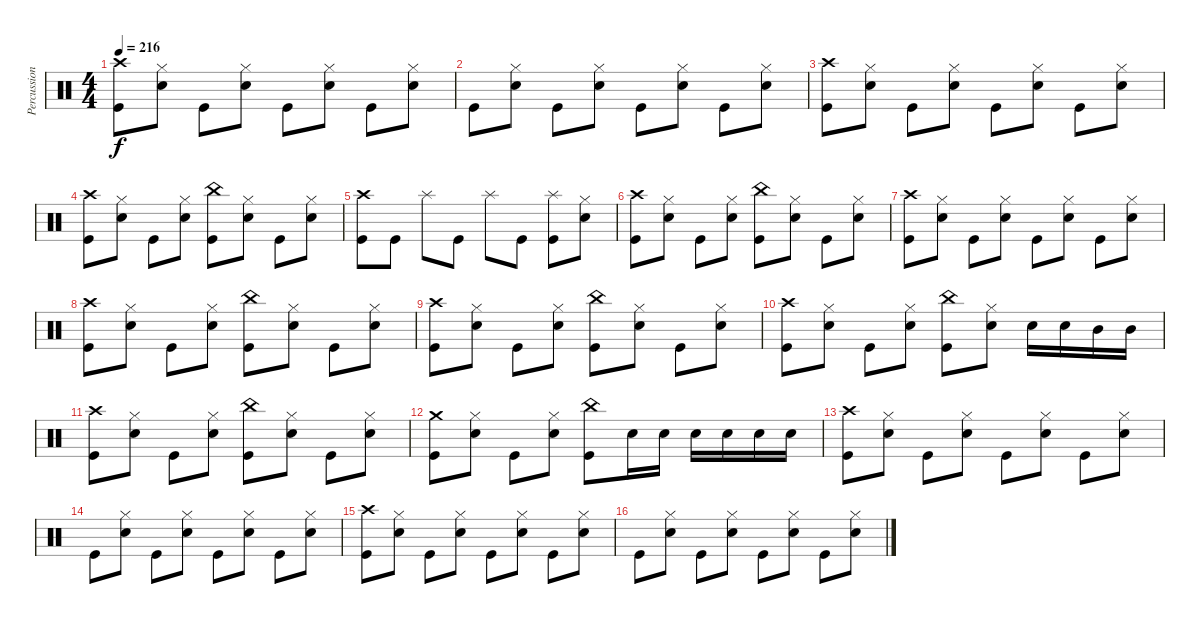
\track ("Percussioni" "Percussion") {instrument percussion}
\staff {score}
\articulation defaults
\ts (4 4)
\tempo 216
\clef neutral
\ks c
("Crash high (hit)" "Kick (hit)").8{dy f} ("Hi-Hat (closed)" "Snare (hit) 2").8 "Kick (hit)".8 ("Hi-Hat (closed)" "Snare (hit) 2").8 "Kick (hit)".8 ("Hi-Hat (closed)" "Snare (hit) 2").8 "Kick (hit)".8 ("Hi-Hat (closed)" "Snare (hit) 2").8 |
"Kick (hit)".8 ("Hi-Hat (closed)" "Snare (hit) 2").8 "Kick (hit)".8 ("Hi-Hat (closed)" "Snare (hit) 2").8 "Kick (hit)".8 ("Hi-Hat (closed)" "Snare (hit) 2").8 "Kick (hit)".8 ("Hi-Hat (closed)" "Snare (hit) 2").8 |
("Crash high (hit)" "Kick (hit)").8 ("Hi-Hat (closed)" "Snare (hit) 2").8 "Kick (hit)".8 ("Hi-Hat (closed)" "Snare (hit) 2").8 "Kick (hit)".8 ("Hi-Hat (closed)" "Snare (hit) 2").8 "Kick (hit)".8 ("Hi-Hat (closed)" "Snare (hit) 2").8 |
("Crash high (hit)" "Kick (hit)").8 ("Hi-Hat (closed)" "Snare (hit) 2").8 "Kick (hit)".8 ("Hi-Hat (closed)" "Snare (hit) 2").8 ("China (hit)" "Kick (hit)").8 ("Hi-Hat (closed)" "Snare (hit) 2").8 "Kick (hit)".8 ("Hi-Hat (closed)" "Snare (hit) 2").8 |
("Crash high (hit)" "Kick (hit)").8 "Kick (hit)".8 "Splash (hit)".8 "Kick (hit)".8 "Splash (hit)".8 "Kick (hit)".8 ("Splash (hit)" "Kick (hit)").8 ("Hi-Hat (closed)" "Snare (hit) 2").8 |
("Crash high (hit)" "Kick (hit)").8 ("Hi-Hat (closed)" "Snare (hit) 2").8 "Kick (hit)".8 ("Hi-Hat (closed)" "Snare (hit) 2").8 ("China (hit)" "Kick (hit)").8 ("Hi-Hat (closed)" "Snare (hit) 2").8 "Kick (hit)".8 ("Hi-Hat (closed)" "Snare (hit) 2").8 |
("Crash high (hit)" "Kick (hit)").8 ("Hi-Hat (closed)" "Snare (hit) 2").8 "Kick (hit)".8 ("Hi-Hat (closed)" "Snare (hit) 2").8 "Kick (hit)".8 ("Hi-Hat (closed)" "Snare (hit) 2").8 "Kick (hit)".8 ("Hi-Hat (closed)" "Snare (hit) 2").8 |
("Crash high (hit)" "Kick (hit)").8 ("Hi-Hat (closed)" "Snare (hit) 2").8 "Kick (hit)".8 ("Hi-Hat (closed)" "Snare (hit) 2").8 ("China (hit)" "Kick (hit)").8 ("Hi-Hat (closed)" "Snare (hit) 2").8 "Kick (hit)".8 ("Hi-Hat (closed)" "Snare (hit) 2").8 |
("Crash high (hit)" "Kick (hit)").8 ("Hi-Hat (closed)" "Snare (hit) 2").8 "Kick (hit)".8 ("Hi-Hat (closed)" "Snare (hit) 2").8 ("China (hit)" "Kick (hit)").8 ("Hi-Hat (closed)" "Snare (hit) 2").8 "Kick (hit)".8 ("Hi-Hat (closed)" "Snare (hit) 2").8 |
("Crash high (hit)" "Kick (hit)").8 ("Hi-Hat (closed)" "Snare (hit) 2").8 "Kick (hit)".8 ("Hi-Hat (closed)" "Snare (hit) 2").8 ("China (hit)" "Kick (hit)").8 ("Hi-Hat (closed)" "Snare (hit) 2").8 "Snare (hit) 2".16 "Snare (hit) 2".16 "Mid Tom (hit)".16 "Mid Tom (hit)".16 |
("Crash high (hit)" "Kick (hit)").8 ("Hi-Hat (closed)" "Snare (hit) 2").8 "Kick (hit)".8 ("Hi-Hat (closed)" "Snare (hit) 2").8 ("China (hit)" "Kick (hit)").8 ("Hi-Hat (closed)" "Snare (hit) 2").8 "Kick (hit)".8 ("Hi-Hat (closed)" "Snare (hit) 2").8 |
("Crash medium (hit)" "Kick (hit)").8 ("Hi-Hat (closed)" "Snare (hit) 2").8 "Kick (hit)".8 ("Hi-Hat (closed)" "Snare (hit) 2").8 ("China (hit)" "Kick (hit)").8 "Snare (hit) 2".16 "Snare (hit) 2".16 "Snare (hit) 2".16 "Snare (hit) 2".16 "Snare (hit) 2".16 "Snare (hit) 2".16 |
("Crash high (hit)" "Kick (hit)").8 ("Hi-Hat (closed)" "Snare (hit) 2").8 "Kick (hit)".8 ("Hi-Hat (closed)" "Snare (hit) 2").8 "Kick (hit)".8 ("Hi-Hat (closed)" "Snare (hit) 2").8 "Kick (hit)".8 ("Hi-Hat (closed)" "Snare (hit) 2").8 |
"Kick (hit)".8 ("Hi-Hat (closed)" "Snare (hit) 2").8 "Kick (hit)".8 ("Hi-Hat (closed)" "Snare (hit) 2").8 "Kick (hit)".8 ("Hi-Hat (closed)" "Snare (hit) 2").8 "Kick (hit)".8 ("Hi-Hat (closed)" "Snare (hit) 2").8 |
("Crash high (hit)" "Kick (hit)").8 ("Hi-Hat (closed)" "Snare (hit) 2").8 "Kick (hit)".8 ("Hi-Hat (closed)" "Snare (hit) 2").8 "Kick (hit)".8 ("Hi-Hat (closed)" "Snare (hit) 2").8 "Kick (hit)".8 ("Hi-Hat (closed)" "Snare (hit) 2").8 |
"Kick (hit)".8 ("Hi-Hat (closed)" "Snare (hit) 2").8 "Kick (hit)".8 ("Hi-Hat (closed)" "Snare (hit) 2").8 "Kick (hit)".8 ("Hi-Hat (closed)" "Snare (hit) 2").8 "Kick (hit)".8 ("Hi-Hat (closed)" "Snare (hit) 2").8
